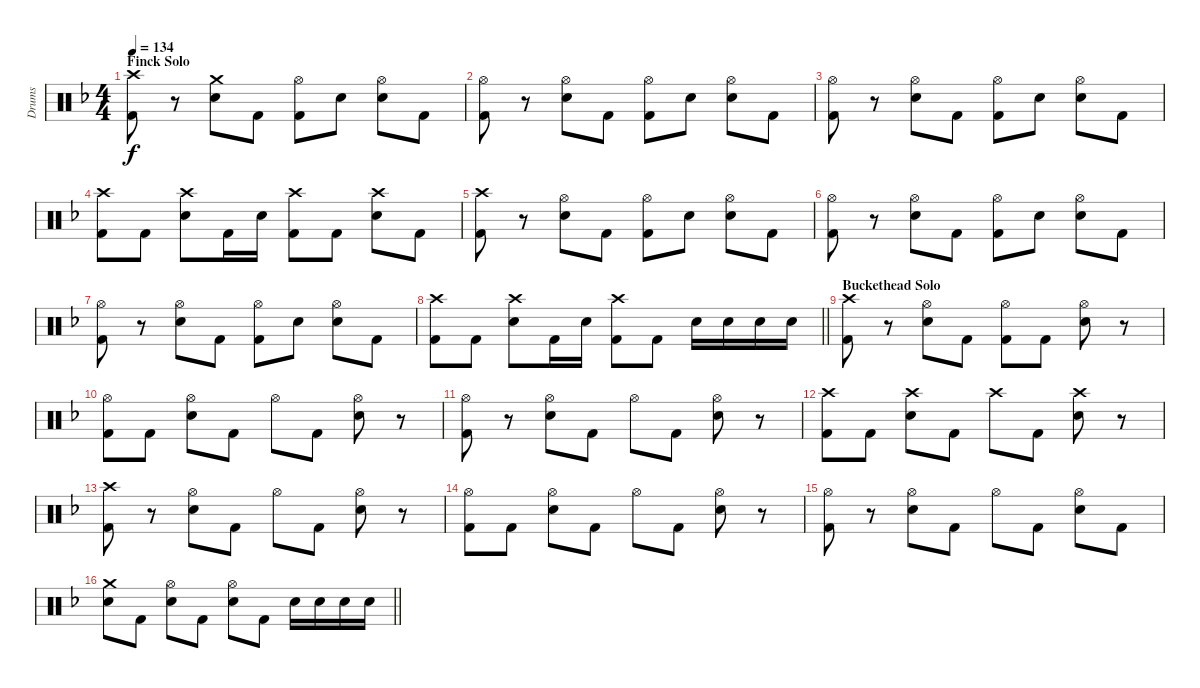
\track ("Drums" "Drums") {instrument percussion}
\staff {score}
\articulation defaults
\ts (4 4)
\section ("" "Finck Solo")
\tempo 134
\clef neutral
\ks f
("Crash high (hit)" "Kick (hit) 2").8{dy f} r.8 ("Crash medium (hit)" "Electric Snare (hit)").8 "Kick (hit) 2".8 ("Hi-Hat (open)" "Kick (hit) 2").8 "Electric Snare (hit)".8 ("Hi-Hat (open)" "Electric Snare (hit)").8 "Kick (hit) 2".8 |
("Hi-Hat (open)" "Kick (hit) 2").8 r.8 ("Hi-Hat (open)" "Electric Snare (hit)").8 "Kick (hit) 2".8 ("Hi-Hat (open)" "Kick (hit) 2").8 "Electric Snare (hit)".8 ("Hi-Hat (open)" "Electric Snare (hit)").8 "Kick (hit) 2".8 |
("Hi-Hat (open)" "Kick (hit) 2").8 r.8 ("Hi-Hat (open)" "Electric Snare (hit)").8 "Kick (hit) 2".8 ("Hi-Hat (open)" "Kick (hit) 2").8 "Electric Snare (hit)".8 ("Hi-Hat (open)" "Electric Snare (hit)").8 "Kick (hit) 2".8 |
("Crash high (hit)" "Kick (hit) 2").8 "Kick (hit) 2".8 ("Crash high (hit)" "Electric Snare (hit)").8 "Kick (hit) 2".16 "Electric Snare (hit)".16 ("Crash high (hit)" "Kick (hit) 2").8 "Kick (hit) 2".8 ("Crash high (hit)" "Electric Snare (hit)").8 "Kick (hit) 2".8 |
("Crash high (hit)" "Kick (hit) 2").8 r.8 ("Hi-Hat (open)" "Electric Snare (hit)").8 "Kick (hit) 2".8 ("Hi-Hat (open)" "Kick (hit) 2").8 "Electric Snare (hit)".8 ("Hi-Hat (open)" "Electric Snare (hit)").8 "Kick (hit) 2".8 |
("Hi-Hat (open)" "Kick (hit) 2").8 r.8 ("Hi-Hat (open)" "Electric Snare (hit)").8 "Kick (hit) 2".8 ("Hi-Hat (open)" "Kick (hit) 2").8 "Electric Snare (hit)".8 ("Hi-Hat (open)" "Electric Snare (hit)").8 "Kick (hit) 2".8 |
("Hi-Hat (open)" "Kick (hit) 2").8 r.8 ("Hi-Hat (open)" "Electric Snare (hit)").8 "Kick (hit) 2".8 ("Hi-Hat (open)" "Kick (hit) 2").8 "Electric Snare (hit)".8 ("Hi-Hat (open)" "Electric Snare (hit)").8 "Kick (hit) 2".8 |
\barLineRight lightlight
("Crash high (hit)" "Kick (hit) 2").8 "Kick (hit) 2".8 ("Crash high (hit)" "Electric Snare (hit)").8 "Kick (hit) 2".16 "Electric Snare (hit)".16 ("Crash high (hit)" "Kick (hit) 2").8 "Kick (hit) 2".8 "Electric Snare (hit)".16 "Electric Snare (hit)".16 "Electric Snare (hit)".16 "Electric Snare (hit)".16 |
\section ("" "Buckethead Solo")
("Crash high (hit)" "Kick (hit) 2").8 r.8 ("Hi-Hat (open)" "Electric Snare (hit)").8 "Kick (hit) 2".8 ("Hi-Hat (open)" "Kick (hit) 2").8 "Kick (hit) 2".8 ("Hi-Hat (open)" "Electric Snare (hit)").8 r.8 |
("Hi-Hat (open)" "Kick (hit) 2").8 "Kick (hit) 2".8 ("Hi-Hat (open)" "Electric Snare (hit)").8 "Kick (hit) 2".8 "Hi-Hat (open)".8 "Kick (hit) 2".8 ("Hi-Hat (open)" "Electric Snare (hit)").8 r.8 |
("Hi-Hat (open)" "Kick (hit) 2").8 r.8 ("Hi-Hat (open)" "Electric Snare (hit)").8 "Kick (hit) 2".8 "Hi-Hat (open)".8 "Kick (hit) 2".8 ("Hi-Hat (open)" "Electric Snare (hit)").8 r.8 |
("Crash high (hit)" "Kick (hit) 2").8 "Kick (hit) 2".8 ("Crash high (hit)" "Electric Snare (hit)").8 "Kick (hit) 2".8 "Crash high (hit)".8 "Kick (hit) 2".8 ("Crash high (hit)" "Electric Snare (hit)").8 r.8 |
("Crash high (hit)" "Kick (hit) 2").8 r.8 ("Hi-Hat (open)" "Electric Snare (hit)").8 "Kick (hit) 2".8 "Hi-Hat (open)".8 "Kick (hit) 2".8 ("Hi-Hat (open)" "Electric Snare (hit)").8 r.8 |
("Hi-Hat (open)" "Kick (hit) 2").8 "Kick (hit) 2".8 ("Hi-Hat (open)" "Electric Snare (hit)").8 "Kick (hit) 2".8 "Hi-Hat (open)".8 "Kick (hit) 2".8 ("Hi-Hat (open)" "Electric Snare (hit)").8 r.8 |
("Hi-Hat (open)" "Kick (hit) 2").8 r.8 ("Hi-Hat (open)" "Electric Snare (hit)").8 "Kick (hit) 2".8 "Hi-Hat (open)".8 "Kick (hit) 2".8 ("Hi-Hat (open)" "Electric Snare (hit)").8 "Kick (hit) 2".8 |
\barLineRight lightlight
("Crash medium (hit)" "Electric Snare (hit)").8 "Kick (hit) 2".8 ("Hi-Hat (open)" "Electric Snare (hit)").8 "Kick (hit) 2".8 ("Hi-Hat (open)" "Electric Snare (hit)").8 "Kick (hit) 2".8 "Electric Snare (hit)".16 "Electric Snare (hit)".16 "Electric Snare (hit)".16 "Electric Snare (hit)".16
